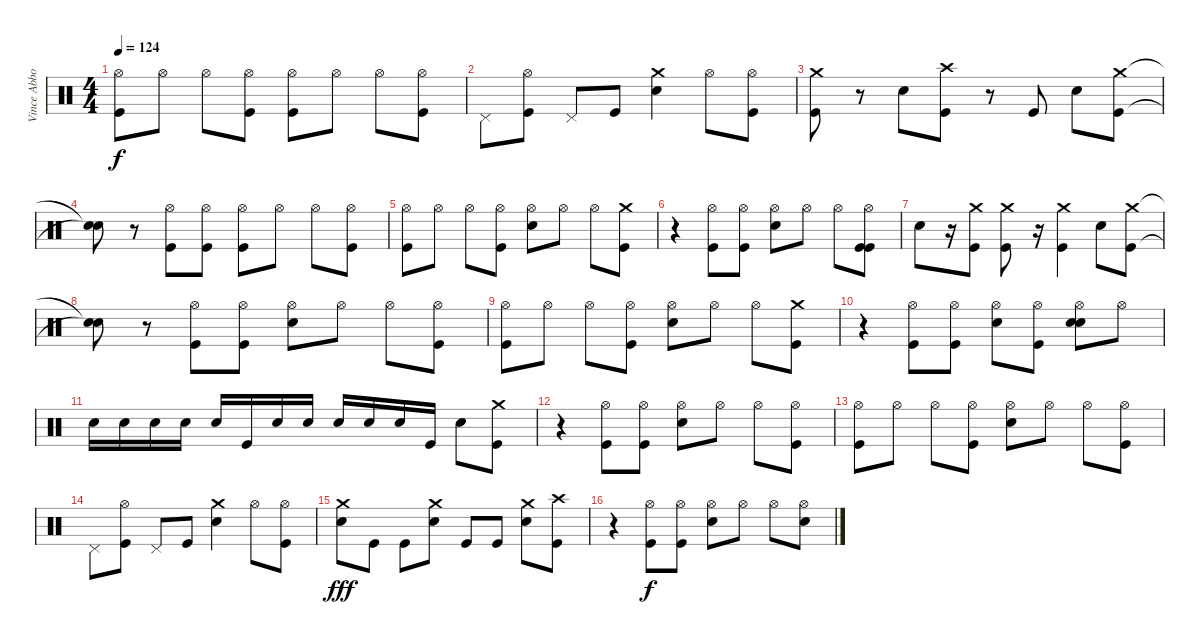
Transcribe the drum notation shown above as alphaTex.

\track ("Vince Abbott (Drums)" "Vince Abbo") {instrument percussion}
\staff {score}
\articulation defaults
\ts (4 4)
\tempo 124
\clef neutral
\ks c
("Kick (hit)" "Hi-Hat (open)").8{dy f} "Hi-Hat (open)".8 "Hi-Hat (open)".8 ("Kick (hit)" "Hi-Hat (open)").8 ("Kick (hit)" "Hi-Hat (open)").8 "Hi-Hat (open)".8 "Hi-Hat (open)".8 ("Hi-Hat (open)" "Kick (hit)").8 |
"Pedal Hi-Hat (hit)".8 ("Kick (hit)" "Hi-Hat (open)").8 "Pedal Hi-Hat (hit)".8 "Kick (hit)".8 ("Crash medium (hit)" "Electric Snare (hit)").4 "Hi-Hat (open)".8 ("Hi-Hat (open)" "Kick (hit)").8 |
("Crash medium (hit)" "Kick (hit)").8 r.8 "Electric Snare (hit)".8 ("Kick (hit)" "Crash high (hit)").8 r.8 "Kick (hit)".8 "Electric Snare (hit)".8 ("Crash medium (hit)" "Kick (hit)").8 |
("Snare (hit)"{t} "Snare (hit)"{t}).8 r.8 ("Hi-Hat (open)" "Kick (hit)").8 ("Hi-Hat (open)" "Kick (hit)").8 ("Hi-Hat (open)" "Kick (hit)").8 "Hi-Hat (open)".8 "Hi-Hat (open)".8 ("Hi-Hat (open)" "Kick (hit)").8 |
("Kick (hit)" "Hi-Hat (open)").8 "Hi-Hat (open)".8 "Hi-Hat (open)".8 ("Kick (hit)" "Hi-Hat (open)").8 ("Electric Snare (hit)" "Hi-Hat (open)").8 "Hi-Hat (open)".8 "Hi-Hat (open)".8 ("Kick (hit)" "Crash medium (hit)").8 |
r.4 ("Hi-Hat (open)" "Kick (hit)").8 ("Hi-Hat (open)" "Kick (hit)").8 ("Hi-Hat (open)" "Electric Snare (hit)").8 "Hi-Hat (open)".8 "Hi-Hat (open)".8 ("Kick (hit)" "Hi-Hat (open)" "Kick (hit)").8 |
"Electric Snare (hit)".8 r.16 ("Crash medium (hit)" "Kick (hit)").8 ("Crash medium (hit)" "Kick (hit)").8 r.16 ("Crash medium (hit)" "Kick (hit)").4 "Electric Snare (hit)".8 ("Crash medium (hit)" "Kick (hit)").8 |
("Snare (hit)"{t} "Snare (hit)"{t}).8 r.8 ("Hi-Hat (open)" "Kick (hit)").8 ("Hi-Hat (open)" "Kick (hit)").8 ("Hi-Hat (open)" "Electric Snare (hit)").8 "Hi-Hat (open)".8 "Hi-Hat (open)".8 ("Hi-Hat (open)" "Kick (hit)").8 |
("Kick (hit)" "Hi-Hat (open)").8 "Hi-Hat (open)".8 "Hi-Hat (open)".8 ("Kick (hit)" "Hi-Hat (open)").8 ("Electric Snare (hit)" "Hi-Hat (open)").8 "Hi-Hat (open)".8 "Hi-Hat (open)".8 ("Kick (hit)" "Crash medium (hit)").8 |
r.4 ("Kick (hit)" "Hi-Hat (open)").8 ("Kick (hit)" "Hi-Hat (open)").8 ("Electric Snare (hit)" "Hi-Hat (open)").8 ("Kick (hit)" "Hi-Hat (open)").8 ("Electric Snare (hit)" "Electric Snare (hit)" "Hi-Hat (open)").8 "Hi-Hat (open)".8 |
"Electric Snare (hit)".16 "Electric Snare (hit)".16 "Electric Snare (hit)".16 "Electric Snare (hit)".16 "Electric Snare (hit)".16 "Kick (hit)".16 "Electric Snare (hit)".16 "Electric Snare (hit)".16 "Electric Snare (hit)".16 "Electric Snare (hit)".16 "Electric Snare (hit)".16 "Kick (hit)".16 "Electric Snare (hit)".8 ("Kick (hit)" "Crash medium (hit)").8 |
r.4 ("Hi-Hat (open)" "Kick (hit)").8 ("Hi-Hat (open)" "Kick (hit)").8 ("Hi-Hat (open)" "Electric Snare (hit)").8 "Hi-Hat (open)".8 "Hi-Hat (open)".8 ("Hi-Hat (open)" "Kick (hit)").8 |
("Kick (hit)" "Hi-Hat (open)").8 "Hi-Hat (open)".8 "Hi-Hat (open)".8 ("Hi-Hat (open)" "Kick (hit)").8 ("Electric Snare (hit)" "Hi-Hat (open)").8 "Hi-Hat (open)".8 "Hi-Hat (open)".8 ("Hi-Hat (open)" "Kick (hit)").8 |
"Pedal Hi-Hat (hit)".8 ("Hi-Hat (open)" "Kick (hit)").8 "Pedal Hi-Hat (hit)".8 "Kick (hit)".8 ("Electric Snare (hit)" "Crash medium (hit)").4 "Hi-Hat (open)".8 ("Hi-Hat (open)" "Kick (hit)").8 |
("Crash medium (hit)" "Electric Snare (hit)").8{dy fff} "Kick (hit)".8 "Kick (hit)".8 ("Crash medium (hit)" "Electric Snare (hit)").8 "Kick (hit)".8 "Kick (hit)".8 ("Crash medium (hit)" "Electric Snare (hit)").8 ("Crash high (hit)" "Kick (hit)").8 |
r.4 ("Hi-Hat (open)" "Kick (hit)").8{dy f} ("Hi-Hat (open)" "Kick (hit)").8 ("Hi-Hat (open)" "Electric Snare (hit)").8 "Hi-Hat (open)".8 "Hi-Hat (open)".8 ("Electric Snare (hit)" "Hi-Hat (open)").8
